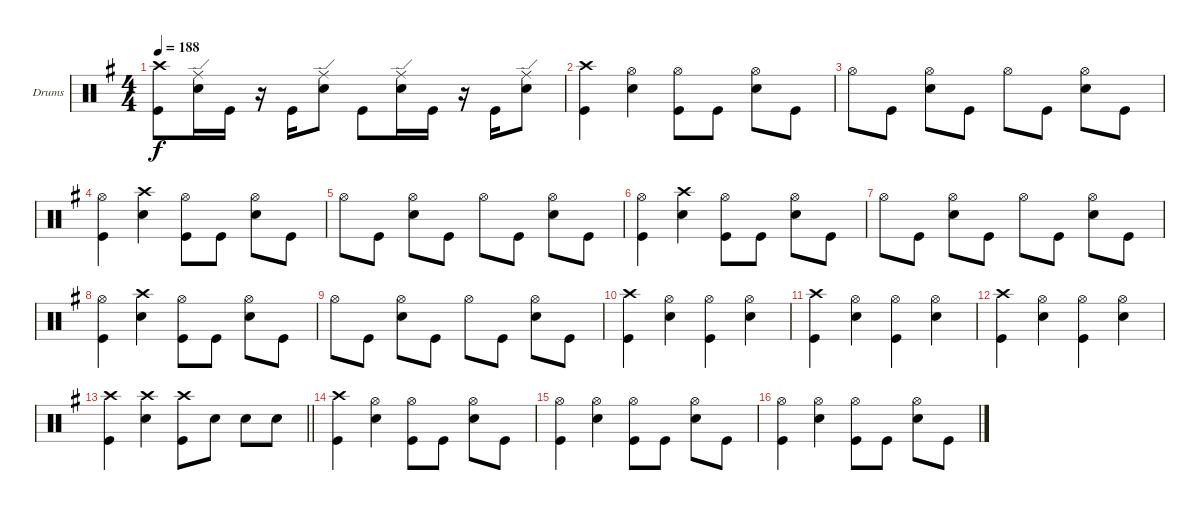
\defaultSystemsLayout 4
\bracketExtendMode groupsimilarinstruments
\firstSystemTrackNameOrientation horizontal
\otherSystemsTrackNameOrientation horizontal
\track ("Drums" "Drums") {instrument percussion}
\staff {score}
\articulation defaults
\ts (4 4)
\tempo 188
\clef neutral
\ks g
("Kick (hit)" "Crash high (hit)").8{dy f} ("Snare (hit) 2" "Ride (edge)").16 "Kick (hit)".16 r.16 "Kick (hit)".16 ("Snare (hit) 2" "Ride (edge)").8 "Kick (hit)".8 ("Snare (hit) 2" "Ride (edge)").16 "Kick (hit)".16 r.16 "Kick (hit)".16 ("Snare (hit) 2" "Ride (edge)").8 |
("Kick (hit)" "Crash high (hit)").4 ("Snare (hit) 2" "Hi-Hat (open)").4 ("Kick (hit)" "Hi-Hat (open)").8 "Kick (hit)".8 ("Snare (hit) 2" "Hi-Hat (open)").8 "Kick (hit)".8 |
"Hi-Hat (open)".8 "Kick (hit)".8 ("Snare (hit) 2" "Hi-Hat (open)").8 "Kick (hit)".8 "Hi-Hat (open)".8 "Kick (hit)".8 ("Snare (hit) 2" "Hi-Hat (open)").8 "Kick (hit)".8 |
("Kick (hit)" "Hi-Hat (open)").4 ("Snare (hit) 2" "Crash high (hit)").4 ("Kick (hit)" "Hi-Hat (open)").8 "Kick (hit)".8 ("Snare (hit) 2" "Hi-Hat (open)").8 "Kick (hit)".8 |
"Hi-Hat (open)".8 "Kick (hit)".8 ("Snare (hit) 2" "Hi-Hat (open)").8 "Kick (hit)".8 "Hi-Hat (open)".8 "Kick (hit)".8 ("Snare (hit) 2" "Hi-Hat (open)").8 "Kick (hit)".8 |
("Kick (hit)" "Hi-Hat (open)").4 ("Snare (hit) 2" "Crash high (hit)").4 ("Kick (hit)" "Hi-Hat (open)").8 "Kick (hit)".8 ("Snare (hit) 2" "Hi-Hat (open)").8 "Kick (hit)".8 |
"Hi-Hat (open)".8 "Kick (hit)".8 ("Snare (hit) 2" "Hi-Hat (open)").8 "Kick (hit)".8 "Hi-Hat (open)".8 "Kick (hit)".8 ("Snare (hit) 2" "Hi-Hat (open)").8 "Kick (hit)".8 |
("Kick (hit)" "Hi-Hat (open)").4 ("Snare (hit) 2" "Crash high (hit)").4 ("Kick (hit)" "Hi-Hat (open)").8 "Kick (hit)".8 ("Snare (hit) 2" "Hi-Hat (open)").8 "Kick (hit)".8 |
"Hi-Hat (open)".8 "Kick (hit)".8 ("Snare (hit) 2" "Hi-Hat (open)").8 "Kick (hit)".8 "Hi-Hat (open)".8 "Kick (hit)".8 ("Snare (hit) 2" "Hi-Hat (open)").8 "Kick (hit)".8 |
("Kick (hit)" "Crash high (hit)").4 ("Snare (hit) 2" "Hi-Hat (open)").4 ("Kick (hit)" "Hi-Hat (open)").4 ("Snare (hit) 2" "Hi-Hat (open)").4 |
("Kick (hit)" "Crash high (hit)").4 ("Snare (hit) 2" "Hi-Hat (open)").4 ("Kick (hit)" "Hi-Hat (open)").4 ("Snare (hit) 2" "Hi-Hat (open)").4 |
("Kick (hit)" "Crash high (hit)").4 ("Snare (hit) 2" "Hi-Hat (open)").4 ("Kick (hit)" "Hi-Hat (open)").4 ("Snare (hit) 2" "Hi-Hat (open)").4 |
\barLineRight lightlight
("Kick (hit)" "Crash high (hit)").4 ("Snare (hit) 2" "Crash high (hit)").4 ("Kick (hit)" "Crash high (hit)").8 "Snare (hit) 2".8 "Snare (hit) 2".8 "Snare (hit) 2".8 |
("Kick (hit)" "Crash high (hit)").4 ("Snare (hit) 2" "Hi-Hat (open)").4 ("Kick (hit)" "Hi-Hat (open)").8 "Kick (hit)".8 ("Snare (hit) 2" "Hi-Hat (open)").8 "Kick (hit)".8 |
("Kick (hit)" "Hi-Hat (open)").4 ("Snare (hit) 2" "Hi-Hat (open)").4 ("Kick (hit)" "Hi-Hat (open)").8 "Kick (hit)".8 ("Snare (hit) 2" "Hi-Hat (open)").8 "Kick (hit)".8 |
("Kick (hit)" "Hi-Hat (open)").4 ("Snare (hit) 2" "Hi-Hat (open)").4 ("Kick (hit)" "Hi-Hat (open)").8 "Kick (hit)".8 ("Snare (hit) 2" "Hi-Hat (open)").8 "Kick (hit)".8
